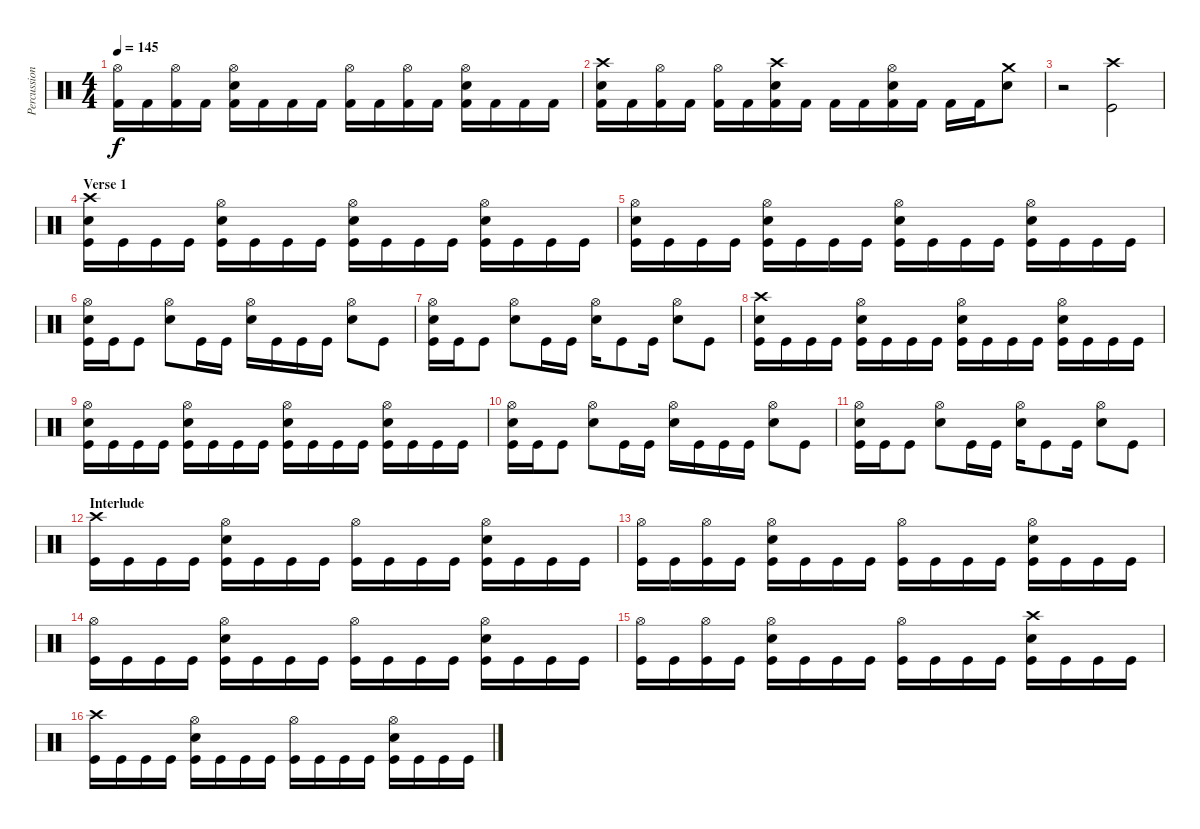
\track ("Percussions" "Percussion") {instrument percussion}
\staff {score}
\articulation defaults
\ts (4 4)
\tempo 145
\clef neutral
\ks c
("Hi-Hat (open)" "Kick (hit) 2").16{dy f} "Kick (hit) 2".16 ("Hi-Hat (open)" "Kick (hit) 2").16 "Kick (hit) 2".16 ("Hi-Hat (open)" "Electric Snare (hit)" "Kick (hit) 2").16 "Kick (hit) 2".16 "Kick (hit) 2".16 "Kick (hit) 2".16 ("Hi-Hat (open)" "Kick (hit) 2").16 "Kick (hit) 2".16 ("Hi-Hat (open)" "Kick (hit) 2").16 "Kick (hit) 2".16 ("Hi-Hat (open)" "Electric Snare (hit)" "Kick (hit) 2").16 "Kick (hit) 2".16 "Kick (hit) 2".16 "Kick (hit) 2".16 |
("Crash high (hit)" "Electric Snare (hit)" "Kick (hit) 2").16 "Kick (hit) 2".16 ("Hi-Hat (open)" "Kick (hit) 2").16 "Kick (hit) 2".16 ("Hi-Hat (open)" "Kick (hit) 2").16 "Kick (hit) 2".16 ("Crash high (hit)" "Electric Snare (hit)" "Kick (hit) 2").16 "Kick (hit) 2".16 "Kick (hit) 2".16 "Kick (hit) 2".16 ("Hi-Hat (open)" "Electric Snare (hit)" "Kick (hit) 2").16 "Kick (hit) 2".16 "Kick (hit) 2".16 "Kick (hit) 2".16 ("Crash medium (hit)" "Electric Snare (hit)").8 |
r.2 ("Crash high (hit)" "Kick (hit)").2 |
\section ("" "Verse 1")
("Crash high (hit)" "Snare (hit) 2" "Kick (hit)").16 "Kick (hit)".16 "Kick (hit)".16 "Kick (hit)".16 ("Hi-Hat (open)" "Snare (hit) 2" "Kick (hit)").16 "Kick (hit)".16 "Kick (hit)".16 "Kick (hit)".16 ("Hi-Hat (open)" "Snare (hit) 2" "Kick (hit)").16 "Kick (hit)".16 "Kick (hit)".16 "Kick (hit)".16 ("Hi-Hat (open)" "Snare (hit) 2" "Kick (hit)").16 "Kick (hit)".16 "Kick (hit)".16 "Kick (hit)".16 |
("Hi-Hat (open)" "Snare (hit) 2" "Kick (hit)").16 "Kick (hit)".16 "Kick (hit)".16 "Kick (hit)".16 ("Hi-Hat (open)" "Snare (hit) 2" "Kick (hit)").16 "Kick (hit)".16 "Kick (hit)".16 "Kick (hit)".16 ("Hi-Hat (open)" "Snare (hit) 2" "Kick (hit)").16 "Kick (hit)".16 "Kick (hit)".16 "Kick (hit)".16 ("Hi-Hat (open)" "Snare (hit) 2" "Kick (hit)").16 "Kick (hit)".16 "Kick (hit)".16 "Kick (hit)".16 |
("Hi-Hat (open)" "Snare (hit) 2" "Kick (hit)").16 "Kick (hit)".16 "Kick (hit)".8 ("Hi-Hat (open)" "Snare (hit) 2").8 "Kick (hit)".16 "Kick (hit)".16 ("Hi-Hat (open)" "Snare (hit) 2").16 "Kick (hit)".16 "Kick (hit)".16 "Kick (hit)".16 ("Hi-Hat (open)" "Snare (hit) 2").8 "Kick (hit)".8 |
("Hi-Hat (open)" "Snare (hit) 2" "Kick (hit)").16 "Kick (hit)".16 "Kick (hit)".8 ("Hi-Hat (open)" "Snare (hit) 2").8 "Kick (hit)".16 "Kick (hit)".16 ("Hi-Hat (open)" "Snare (hit) 2").16 "Kick (hit)".8 "Kick (hit)".16 ("Hi-Hat (open)" "Snare (hit) 2").8 "Kick (hit)".8 |
("Crash high (hit)" "Snare (hit) 2" "Kick (hit)").16 "Kick (hit)".16 "Kick (hit)".16 "Kick (hit)".16 ("Hi-Hat (open)" "Snare (hit) 2" "Kick (hit)").16 "Kick (hit)".16 "Kick (hit)".16 "Kick (hit)".16 ("Hi-Hat (open)" "Snare (hit) 2" "Kick (hit)").16 "Kick (hit)".16 "Kick (hit)".16 "Kick (hit)".16 ("Hi-Hat (open)" "Snare (hit) 2" "Kick (hit)").16 "Kick (hit)".16 "Kick (hit)".16 "Kick (hit)".16 |
("Hi-Hat (open)" "Snare (hit) 2" "Kick (hit)").16 "Kick (hit)".16 "Kick (hit)".16 "Kick (hit)".16 ("Hi-Hat (open)" "Snare (hit) 2" "Kick (hit)").16 "Kick (hit)".16 "Kick (hit)".16 "Kick (hit)".16 ("Hi-Hat (open)" "Snare (hit) 2" "Kick (hit)").16 "Kick (hit)".16 "Kick (hit)".16 "Kick (hit)".16 ("Hi-Hat (open)" "Snare (hit) 2" "Kick (hit)").16 "Kick (hit)".16 "Kick (hit)".16 "Kick (hit)".16 |
("Hi-Hat (open)" "Snare (hit) 2" "Kick (hit)").16 "Kick (hit)".16 "Kick (hit)".8 ("Hi-Hat (open)" "Snare (hit) 2").8 "Kick (hit)".16 "Kick (hit)".16 ("Hi-Hat (open)" "Snare (hit) 2").16 "Kick (hit)".16 "Kick (hit)".16 "Kick (hit)".16 ("Hi-Hat (open)" "Snare (hit) 2").8 "Kick (hit)".8 |
("Hi-Hat (open)" "Snare (hit) 2" "Kick (hit)").16 "Kick (hit)".16 "Kick (hit)".8 ("Hi-Hat (open)" "Snare (hit) 2").8 "Kick (hit)".16 "Kick (hit)".16 ("Hi-Hat (open)" "Snare (hit) 2").16 "Kick (hit)".8 "Kick (hit)".16 ("Hi-Hat (open)" "Snare (hit) 2").8 "Kick (hit)".8 |
\section ("" "Interlude")
("Crash high (hit)" "Kick (hit)").16 "Kick (hit)".16 "Kick (hit)".16 "Kick (hit)".16 ("Hi-Hat (open)" "Snare (hit) 2" "Kick (hit)").16 "Kick (hit)".16 "Kick (hit)".16 "Kick (hit)".16 ("Hi-Hat (open)" "Kick (hit)").16 "Kick (hit)".16 "Kick (hit)".16 "Kick (hit)".16 ("Hi-Hat (open)" "Snare (hit) 2" "Kick (hit)").16 "Kick (hit)".16 "Kick (hit)".16 "Kick (hit)".16 |
("Hi-Hat (open)" "Kick (hit)").16 "Kick (hit)".16 ("Hi-Hat (open)" "Kick (hit)").16 "Kick (hit)".16 ("Hi-Hat (open)" "Snare (hit) 2" "Kick (hit)").16 "Kick (hit)".16 "Kick (hit)".16 "Kick (hit)".16 ("Hi-Hat (open)" "Kick (hit)").16 "Kick (hit)".16 "Kick (hit)".16 "Kick (hit)".16 ("Hi-Hat (open)" "Snare (hit) 2" "Kick (hit)").16 "Kick (hit)".16 "Kick (hit)".16 "Kick (hit)".16 |
("Hi-Hat (open)" "Kick (hit)").16 "Kick (hit)".16 "Kick (hit)".16 "Kick (hit)".16 ("Hi-Hat (open)" "Snare (hit) 2" "Kick (hit)").16 "Kick (hit)".16 "Kick (hit)".16 "Kick (hit)".16 ("Hi-Hat (open)" "Kick (hit)").16 "Kick (hit)".16 "Kick (hit)".16 "Kick (hit)".16 ("Hi-Hat (open)" "Snare (hit) 2" "Kick (hit)").16 "Kick (hit)".16 "Kick (hit)".16 "Kick (hit)".16 |
("Hi-Hat (open)" "Kick (hit)").16 "Kick (hit)".16 ("Hi-Hat (open)" "Kick (hit)").16 "Kick (hit)".16 ("Hi-Hat (open)" "Snare (hit) 2" "Kick (hit)").16 "Kick (hit)".16 "Kick (hit)".16 "Kick (hit)".16 ("Hi-Hat (open)" "Kick (hit)").16 "Kick (hit)".16 "Kick (hit)".16 "Kick (hit)".16 ("Crash high (hit)" "Snare (hit) 2" "Kick (hit)").16 "Kick (hit)".16 "Kick (hit)".16 "Kick (hit)".16 |
("Crash high (hit)" "Kick (hit)").16 "Kick (hit)".16 "Kick (hit)".16 "Kick (hit)".16 ("Hi-Hat (open)" "Snare (hit) 2" "Kick (hit)").16 "Kick (hit)".16 "Kick (hit)".16 "Kick (hit)".16 ("Hi-Hat (open)" "Kick (hit)").16 "Kick (hit)".16 "Kick (hit)".16 "Kick (hit)".16 ("Hi-Hat (open)" "Snare (hit) 2" "Kick (hit)").16 "Kick (hit)".16 "Kick (hit)".16 "Kick (hit)".16
